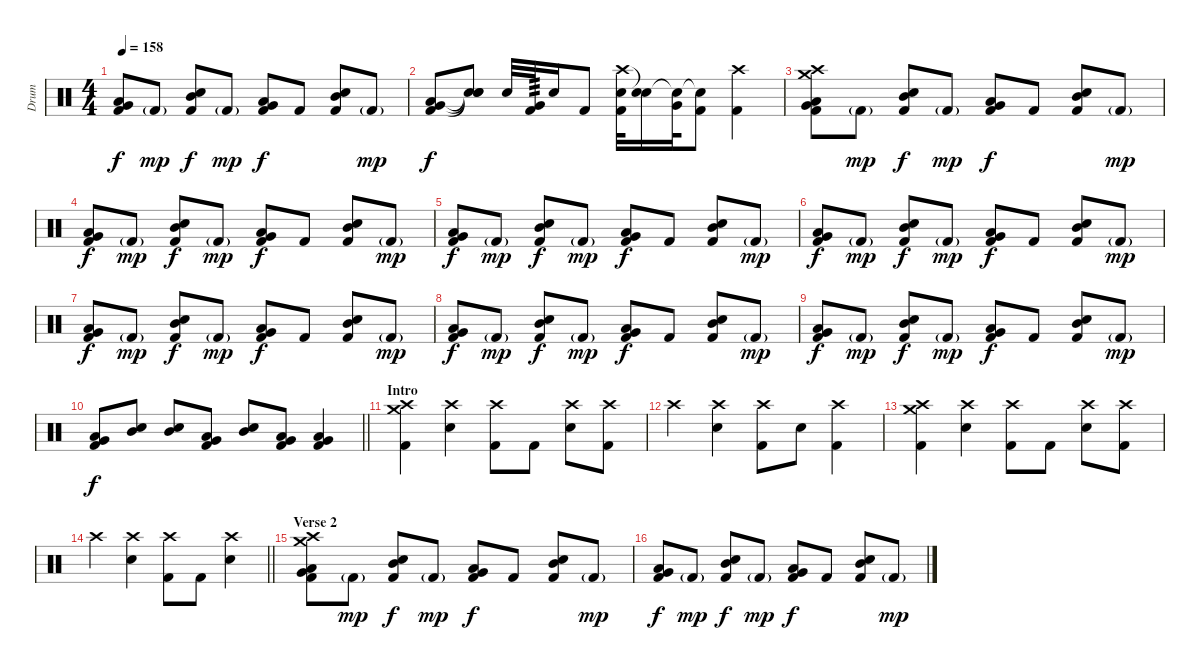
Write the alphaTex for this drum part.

\track ("Drum" "Drum") {instrument percussion}
\staff {score}
\articulation defaults
\ts (4 4)
\tempo 158
\clef neutral
\ks c
("Low Floor Tom (hit)" "Very Low Tom (hit)" "Kick (hit) 2").8{dy f} "Kick (hit) 2"{g}.8{dy mp} ("Mid Tom (hit)" "Electric Snare (hit)" "Kick (hit) 2").8{dy f} "Kick (hit) 2"{g}.8{dy mp} ("Low Floor Tom (hit)" "Very Low Tom (hit)" "Kick (hit) 2").8{dy f} "Kick (hit) 2".8 ("Mid Tom (hit)" "Electric Snare (hit)" "Kick (hit) 2").8 "Kick (hit) 2"{g}.8{dy mp} |
("Low Floor Tom (hit)" "Very Low Tom (hit)" "Kick (hit) 2").8{bd 240 dy f} ("Snare (hit)"{t} "Snare (hit)"{t} "Snare (hit)"{t}).8 "Electric Snare (hit)".32{bd 240} ("Very Low Tom (hit)" "Kick (hit) 2").32{tp 3} "Electric Snare (hit)".16 "Kick (hit) 2".8 ("Crash high (hit)" "Electric Snare (hit)" "Kick (hit) 2").32 ("Snare (hit)"{t} "Electric Snare (hit)").16 ("Snare (hit)"{t} "Very Low Tom (hit)").32 ("Snare (hit)"{t} "Kick (hit) 2").8 ("Crash high (hit)" "Kick (hit) 2").4 |
("Crash high (hit)" "Crash medium (hit)" "Low Floor Tom (hit)" "Very Low Tom (hit)" "Kick (hit) 2").8 "Kick (hit) 2"{g}.8{dy mp} ("Mid Tom (hit)" "Electric Snare (hit)" "Kick (hit) 2").8{dy f} "Kick (hit) 2"{g}.8{dy mp} ("Low Floor Tom (hit)" "Very Low Tom (hit)" "Kick (hit) 2").8{dy f} "Kick (hit) 2".8 ("Mid Tom (hit)" "Electric Snare (hit)" "Kick (hit) 2").8 "Kick (hit) 2"{g}.8{dy mp} |
("Low Floor Tom (hit)" "Very Low Tom (hit)" "Kick (hit) 2").8{dy f} "Kick (hit) 2"{g}.8{dy mp} ("Mid Tom (hit)" "Electric Snare (hit)" "Kick (hit) 2").8{dy f} "Kick (hit) 2"{g}.8{dy mp} ("Low Floor Tom (hit)" "Very Low Tom (hit)" "Kick (hit) 2").8{dy f} "Kick (hit) 2".8 ("Mid Tom (hit)" "Electric Snare (hit)" "Kick (hit) 2").8 "Kick (hit) 2"{g}.8{dy mp} |
("Low Floor Tom (hit)" "Very Low Tom (hit)" "Kick (hit) 2").8{dy f} "Kick (hit) 2"{g}.8{dy mp} ("Mid Tom (hit)" "Electric Snare (hit)" "Kick (hit) 2").8{dy f} "Kick (hit) 2"{g}.8{dy mp} ("Low Floor Tom (hit)" "Very Low Tom (hit)" "Kick (hit) 2").8{dy f} "Kick (hit) 2".8 ("Mid Tom (hit)" "Electric Snare (hit)" "Kick (hit) 2").8 "Kick (hit) 2"{g}.8{dy mp} |
("Low Floor Tom (hit)" "Very Low Tom (hit)" "Kick (hit) 2").8{dy f} "Kick (hit) 2"{g}.8{dy mp} ("Mid Tom (hit)" "Electric Snare (hit)" "Kick (hit) 2").8{dy f} "Kick (hit) 2"{g}.8{dy mp} ("Low Floor Tom (hit)" "Very Low Tom (hit)" "Kick (hit) 2").8{dy f} "Kick (hit) 2".8 ("Mid Tom (hit)" "Electric Snare (hit)" "Kick (hit) 2").8 "Kick (hit) 2"{g}.8{dy mp} |
("Low Floor Tom (hit)" "Very Low Tom (hit)" "Kick (hit) 2").8{dy f} "Kick (hit) 2"{g}.8{dy mp} ("Mid Tom (hit)" "Electric Snare (hit)" "Kick (hit) 2").8{dy f} "Kick (hit) 2"{g}.8{dy mp} ("Low Floor Tom (hit)" "Very Low Tom (hit)" "Kick (hit) 2").8{dy f} "Kick (hit) 2".8 ("Mid Tom (hit)" "Electric Snare (hit)" "Kick (hit) 2").8 "Kick (hit) 2"{g}.8{dy mp} |
("Low Floor Tom (hit)" "Very Low Tom (hit)" "Kick (hit) 2").8{dy f} "Kick (hit) 2"{g}.8{dy mp} ("Mid Tom (hit)" "Electric Snare (hit)" "Kick (hit) 2").8{dy f} "Kick (hit) 2"{g}.8{dy mp} ("Low Floor Tom (hit)" "Very Low Tom (hit)" "Kick (hit) 2").8{dy f} "Kick (hit) 2".8 ("Mid Tom (hit)" "Electric Snare (hit)" "Kick (hit) 2").8 "Kick (hit) 2"{g}.8{dy mp} |
("Low Floor Tom (hit)" "Very Low Tom (hit)" "Kick (hit) 2").8{dy f} "Kick (hit) 2"{g}.8{dy mp} ("Mid Tom (hit)" "Electric Snare (hit)" "Kick (hit) 2").8{dy f} "Kick (hit) 2"{g}.8{dy mp} ("Low Floor Tom (hit)" "Very Low Tom (hit)" "Kick (hit) 2").8{dy f} "Kick (hit) 2".8 ("Mid Tom (hit)" "Electric Snare (hit)" "Kick (hit) 2").8 "Kick (hit) 2"{g}.8{dy mp} |
\barLineRight lightlight
("Low Floor Tom (hit)" "Very Low Tom (hit)" "Kick (hit) 2").8{dy f} ("Mid Tom (hit)" "Electric Snare (hit)").8 ("Mid Tom (hit)" "Electric Snare (hit)").8 ("Low Floor Tom (hit)" "Very Low Tom (hit)" "Kick (hit) 2").8 ("Mid Tom (hit)" "Electric Snare (hit)").8 ("Low Floor Tom (hit)" "Very Low Tom (hit)" "Kick (hit) 2").8 ("Low Floor Tom (hit)" "Very Low Tom (hit)" "Kick (hit) 2").4 |
\section ("" "Intro")
("Crash high (hit)" "Crash medium (hit)" "Kick (hit) 2").4 ("Crash high (hit)" "Electric Snare (hit)").4 ("Crash high (hit)" "Kick (hit) 2").8 "Kick (hit) 2".8 ("Crash high (hit)" "Electric Snare (hit)").8 ("Crash high (hit)" "Kick (hit) 2").8 |
"Crash high (hit)".4 ("Crash high (hit)" "Electric Snare (hit)").4 ("Crash high (hit)" "Kick (hit) 2").8 "Electric Snare (hit)".8 ("Crash high (hit)" "Kick (hit) 2").4 |
("Crash high (hit)" "Crash medium (hit)" "Kick (hit) 2").4 ("Crash high (hit)" "Electric Snare (hit)").4 ("Crash high (hit)" "Kick (hit) 2").8 "Kick (hit) 2".8 ("Crash high (hit)" "Electric Snare (hit)").8 ("Crash high (hit)" "Kick (hit) 2").8 |
\barLineRight lightlight "Crash high (hit)".4
("Crash high (hit)" "Electric Snare (hit)").4 ("Crash high (hit)" "Kick (hit) 2").8 "Kick (hit) 2".8 ("Crash high (hit)" "Electric Snare (hit)").4 |
\section ("" "Verse 2")
("Crash high (hit)" "Crash medium (hit)" "Low Floor Tom (hit)" "Very Low Tom (hit)" "Kick (hit) 2").8 "Kick (hit) 2"{g}.8{dy mp} ("Mid Tom (hit)" "Electric Snare (hit)" "Kick (hit) 2").8{dy f} "Kick (hit) 2"{g}.8{dy mp} ("Low Floor Tom (hit)" "Very Low Tom (hit)" "Kick (hit) 2").8{dy f} "Kick (hit) 2".8 ("Mid Tom (hit)" "Electric Snare (hit)" "Kick (hit) 2").8 "Kick (hit) 2"{g}.8{dy mp} |
("Low Floor Tom (hit)" "Very Low Tom (hit)" "Kick (hit) 2").8{dy f} "Kick (hit) 2"{g}.8{dy mp} ("Mid Tom (hit)" "Electric Snare (hit)" "Kick (hit) 2").8{dy f} "Kick (hit) 2"{g}.8{dy mp} ("Low Floor Tom (hit)" "Very Low Tom (hit)" "Kick (hit) 2").8{dy f} "Kick (hit) 2".8 ("Mid Tom (hit)" "Electric Snare (hit)" "Kick (hit) 2").8 "Kick (hit) 2"{g}.8{dy mp}
